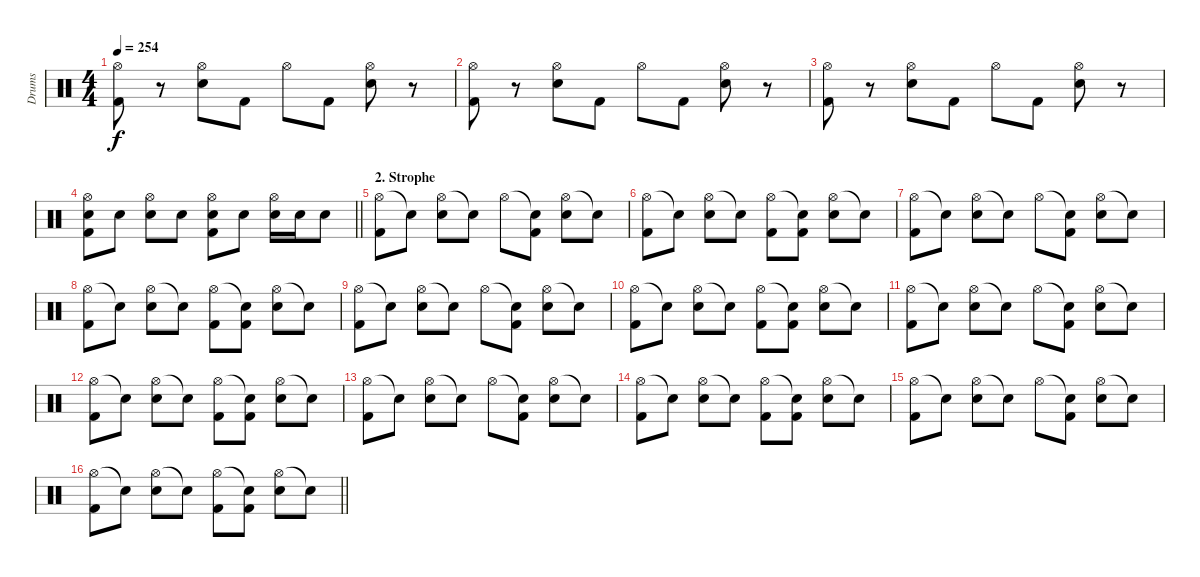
\track ("Drums" "Drums") {instrument percussion}
\staff {score}
\articulation defaults
\ts (4 4)
\tempo 254
\clef neutral
\ks c
("Hi-Hat (open)" "Kick (hit) 2").8{dy f} r.8 ("Hi-Hat (open)" "Electric Snare (hit)").8 "Kick (hit) 2".8 "Hi-Hat (open)".8 "Kick (hit) 2".8 ("Hi-Hat (open)" "Electric Snare (hit)").8 r.8 |
("Hi-Hat (open)" "Kick (hit) 2").8 r.8 ("Hi-Hat (open)" "Electric Snare (hit)").8 "Kick (hit) 2".8 "Hi-Hat (open)".8 "Kick (hit) 2".8 ("Hi-Hat (open)" "Electric Snare (hit)").8 r.8 |
("Hi-Hat (open)" "Kick (hit) 2").8 r.8 ("Hi-Hat (open)" "Electric Snare (hit)").8 "Kick (hit) 2".8 "Hi-Hat (open)".8 "Kick (hit) 2".8 ("Hi-Hat (open)" "Electric Snare (hit)").8 r.8 |
\barLineRight lightlight
("Hi-Hat (open)" "Electric Snare (hit)" "Kick (hit) 2").8 "Electric Snare (hit)".8 ("Hi-Hat (open)" "Electric Snare (hit)").8 "Electric Snare (hit)".8 ("Hi-Hat (open)" "Electric Snare (hit)" "Kick (hit) 2").8 "Electric Snare (hit)".8 ("Hi-Hat (open)" "Electric Snare (hit)").16 "Electric Snare (hit)".16 "Electric Snare (hit)".8 |
\section ("" "2. Strophe")
("Hi-Hat (open)" "Kick (hit) 2").8 "Snare (hit)"{t}.8 ("Hi-Hat (open)" "Electric Snare (hit)").8 "Snare (hit)"{t}.8 "Hi-Hat (open)".8 ("Snare (hit)"{t} "Kick (hit) 2").8 ("Hi-Hat (open)" "Electric Snare (hit)").8 "Snare (hit)"{t}.8 |
("Hi-Hat (open)" "Kick (hit) 2").8 "Snare (hit)"{t}.8 ("Hi-Hat (open)" "Electric Snare (hit)").8 "Snare (hit)"{t}.8 ("Hi-Hat (open)" "Kick (hit) 2").8 ("Snare (hit)"{t} "Kick (hit) 2").8 ("Hi-Hat (open)" "Electric Snare (hit)").8 "Snare (hit)"{t}.8 |
("Hi-Hat (open)" "Kick (hit) 2").8 "Snare (hit)"{t}.8 ("Hi-Hat (open)" "Electric Snare (hit)").8 "Snare (hit)"{t}.8 "Hi-Hat (open)".8 ("Snare (hit)"{t} "Kick (hit) 2").8 ("Hi-Hat (open)" "Electric Snare (hit)").8 "Snare (hit)"{t}.8 |
("Hi-Hat (open)" "Kick (hit) 2").8 "Snare (hit)"{t}.8 ("Hi-Hat (open)" "Electric Snare (hit)").8 "Snare (hit)"{t}.8 ("Hi-Hat (open)" "Kick (hit) 2").8 ("Snare (hit)"{t} "Kick (hit) 2").8 ("Hi-Hat (open)" "Electric Snare (hit)").8 "Snare (hit)"{t}.8 |
("Hi-Hat (open)" "Kick (hit) 2").8 "Snare (hit)"{t}.8 ("Hi-Hat (open)" "Electric Snare (hit)").8 "Snare (hit)"{t}.8 "Hi-Hat (open)".8 ("Snare (hit)"{t} "Kick (hit) 2").8 ("Hi-Hat (open)" "Electric Snare (hit)").8 "Snare (hit)"{t}.8 |
("Hi-Hat (open)" "Kick (hit) 2").8 "Snare (hit)"{t}.8 ("Hi-Hat (open)" "Electric Snare (hit)").8 "Snare (hit)"{t}.8 ("Hi-Hat (open)" "Kick (hit) 2").8 ("Snare (hit)"{t} "Kick (hit) 2").8 ("Hi-Hat (open)" "Electric Snare (hit)").8 "Snare (hit)"{t}.8 |
("Hi-Hat (open)" "Kick (hit) 2").8 "Snare (hit)"{t}.8 ("Hi-Hat (open)" "Electric Snare (hit)").8 "Snare (hit)"{t}.8 "Hi-Hat (open)".8 ("Snare (hit)"{t} "Kick (hit) 2").8 ("Hi-Hat (open)" "Electric Snare (hit)").8 "Snare (hit)"{t}.8 |
("Hi-Hat (open)" "Kick (hit) 2").8 "Snare (hit)"{t}.8 ("Hi-Hat (open)" "Electric Snare (hit)").8 "Snare (hit)"{t}.8 ("Hi-Hat (open)" "Kick (hit) 2").8 ("Snare (hit)"{t} "Kick (hit) 2").8 ("Hi-Hat (open)" "Electric Snare (hit)").8 "Snare (hit)"{t}.8 |
("Hi-Hat (open)" "Kick (hit) 2").8 "Snare (hit)"{t}.8 ("Hi-Hat (open)" "Electric Snare (hit)").8 "Snare (hit)"{t}.8 "Hi-Hat (open)".8 ("Snare (hit)"{t} "Kick (hit) 2").8 ("Hi-Hat (open)" "Electric Snare (hit)").8 "Snare (hit)"{t}.8 |
("Hi-Hat (open)" "Kick (hit) 2").8 "Snare (hit)"{t}.8 ("Hi-Hat (open)" "Electric Snare (hit)").8 "Snare (hit)"{t}.8 ("Hi-Hat (open)" "Kick (hit) 2").8 ("Snare (hit)"{t} "Kick (hit) 2").8 ("Hi-Hat (open)" "Electric Snare (hit)").8 "Snare (hit)"{t}.8 |
("Hi-Hat (open)" "Kick (hit) 2").8 "Snare (hit)"{t}.8 ("Hi-Hat (open)" "Electric Snare (hit)").8 "Snare (hit)"{t}.8 "Hi-Hat (open)".8 ("Snare (hit)"{t} "Kick (hit) 2").8 ("Hi-Hat (open)" "Electric Snare (hit)").8 "Snare (hit)"{t}.8 |
\barLineRight lightlight
("Hi-Hat (open)" "Kick (hit) 2").8 "Snare (hit)"{t}.8 ("Hi-Hat (open)" "Electric Snare (hit)").8 "Snare (hit)"{t}.8 ("Hi-Hat (open)" "Kick (hit) 2").8 ("Snare (hit)"{t} "Kick (hit) 2").8 ("Hi-Hat (open)" "Electric Snare (hit)").8 "Snare (hit)"{t}.8
